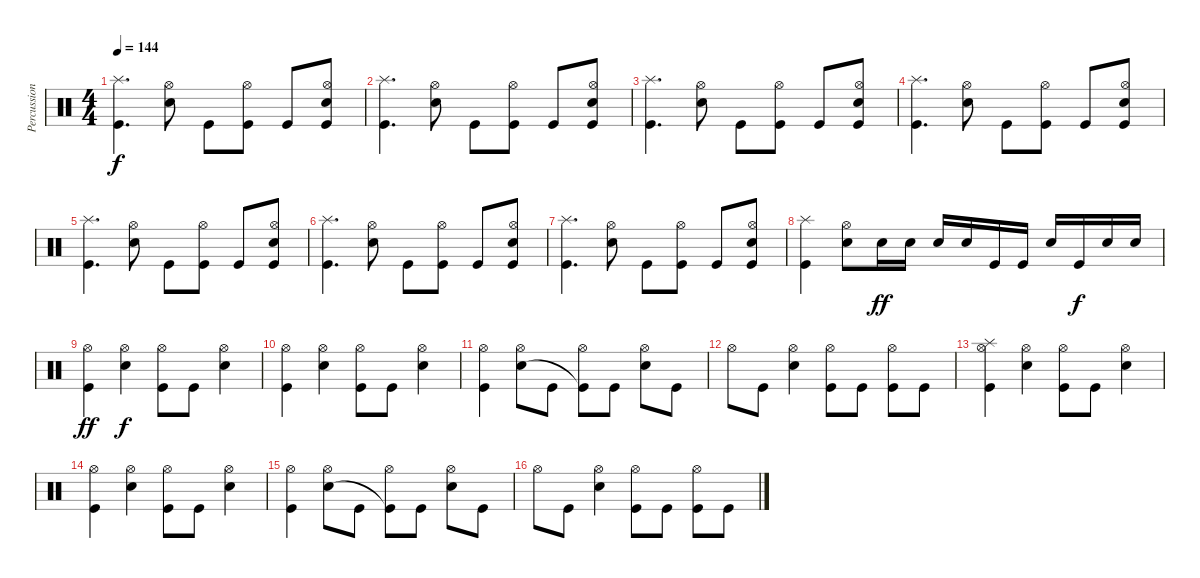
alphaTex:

\track ("Percussion" "Percussion") {instrument percussion}
\staff {score}
\articulation defaults
\ts (4 4)
\tempo 144
\clef neutral
\ks c
("Splash (hit)" "Kick (hit)").4{d dy f} ("Hi-Hat (open)" "Snare (hit) 2").8 "Kick (hit)".8 ("Hi-Hat (open)" "Kick (hit)").8 "Kick (hit)".8 ("Hi-Hat (open)" "Snare (hit) 2" "Kick (hit)").8 |
("Splash (hit)" "Kick (hit)").4{d} ("Hi-Hat (open)" "Snare (hit) 2").8 "Kick (hit)".8 ("Hi-Hat (open)" "Kick (hit)").8 "Kick (hit)".8 ("Hi-Hat (open)" "Snare (hit) 2" "Kick (hit)").8 |
("Splash (hit)" "Kick (hit)").4{d} ("Hi-Hat (open)" "Snare (hit) 2").8 "Kick (hit)".8 ("Hi-Hat (open)" "Kick (hit)").8 "Kick (hit)".8 ("Hi-Hat (open)" "Snare (hit) 2" "Kick (hit)").8 |
("Splash (hit)" "Kick (hit)").4{d} ("Hi-Hat (open)" "Snare (hit) 2").8 "Kick (hit)".8 ("Hi-Hat (open)" "Kick (hit)").8 "Kick (hit)".8 ("Hi-Hat (open)" "Snare (hit) 2" "Kick (hit)").8 |
("Splash (hit)" "Kick (hit)").4{d} ("Hi-Hat (open)" "Snare (hit) 2").8 "Kick (hit)".8 ("Hi-Hat (open)" "Kick (hit)").8 "Kick (hit)".8 ("Hi-Hat (open)" "Snare (hit) 2" "Kick (hit)").8 |
("Splash (hit)" "Kick (hit)").4{d} ("Hi-Hat (open)" "Snare (hit) 2").8 "Kick (hit)".8 ("Hi-Hat (open)" "Kick (hit)").8 "Kick (hit)".8 ("Hi-Hat (open)" "Snare (hit) 2" "Kick (hit)").8 |
("Splash (hit)" "Kick (hit)").4{d} ("Hi-Hat (open)" "Snare (hit) 2").8 "Kick (hit)".8 ("Hi-Hat (open)" "Kick (hit)").8 "Kick (hit)".8 ("Hi-Hat (open)" "Snare (hit) 2" "Kick (hit)").8 |
("Splash (hit)" "Kick (hit)").4 ("Hi-Hat (open)" "Snare (hit) 2").8 "Snare (hit) 2".16{dy ff} "Snare (hit) 2".16 "Snare (hit) 2".16 "Snare (hit) 2".16 "Kick (hit)".16 "Kick (hit)".16 "Snare (hit) 2".16 "Kick (hit)".16{dy f} "Snare (hit) 2".16 "Snare (hit) 2".16 |
("Hi-Hat (open)" "Kick (hit)").4{dy ff} ("Hi-Hat (open)" "Snare (hit) 2").4{dy f} ("Hi-Hat (open)" "Kick (hit)").8 "Kick (hit)".8 ("Hi-Hat (open)" "Snare (hit) 2").4 |
("Hi-Hat (open)" "Kick (hit)").4 ("Hi-Hat (open)" "Snare (hit) 2").4 ("Hi-Hat (open)" "Kick (hit)").8 "Kick (hit)".8 ("Hi-Hat (open)" "Snare (hit) 2").4 |
("Hi-Hat (open)" "Kick (hit)").4 ("Hi-Hat (open)" "Snare (hit) 2").8 "Kick (hit)".8 ("Hi-Hat (open)" "Kick (hit)"{t}).8 "Kick (hit)".8 ("Hi-Hat (open)" "Snare (hit) 2").8 "Kick (hit)".8 |
"Hi-Hat (open)".8 "Kick (hit)".8 ("Hi-Hat (open)" "Snare (hit) 2").4 ("Hi-Hat (open)" "Kick (hit)").8 "Kick (hit)".8 ("Hi-Hat (open)" "Kick (hit)").8 "Kick (hit)".8 |
("Hi-Hat (open)" "Splash (hit)" "Kick (hit)").4 ("Hi-Hat (open)" "Snare (hit) 2").4 ("Hi-Hat (open)" "Kick (hit)").8 "Kick (hit)".8 ("Hi-Hat (open)" "Snare (hit) 2").4 |
("Hi-Hat (open)" "Kick (hit)").4 ("Hi-Hat (open)" "Snare (hit) 2").4 ("Hi-Hat (open)" "Kick (hit)").8 "Kick (hit)".8 ("Hi-Hat (open)" "Snare (hit) 2").4 |
("Hi-Hat (open)" "Kick (hit)").4 ("Hi-Hat (open)" "Snare (hit) 2").8 "Kick (hit)".8 ("Hi-Hat (open)" "Kick (hit)"{t}).8 "Kick (hit)".8 ("Hi-Hat (open)" "Snare (hit) 2").8 "Kick (hit)".8 |
"Hi-Hat (open)".8 "Kick (hit)".8 ("Hi-Hat (open)" "Snare (hit) 2").4 ("Hi-Hat (open)" "Kick (hit)").8 "Kick (hit)".8 ("Hi-Hat (open)" "Kick (hit)").8 "Kick (hit)".8
